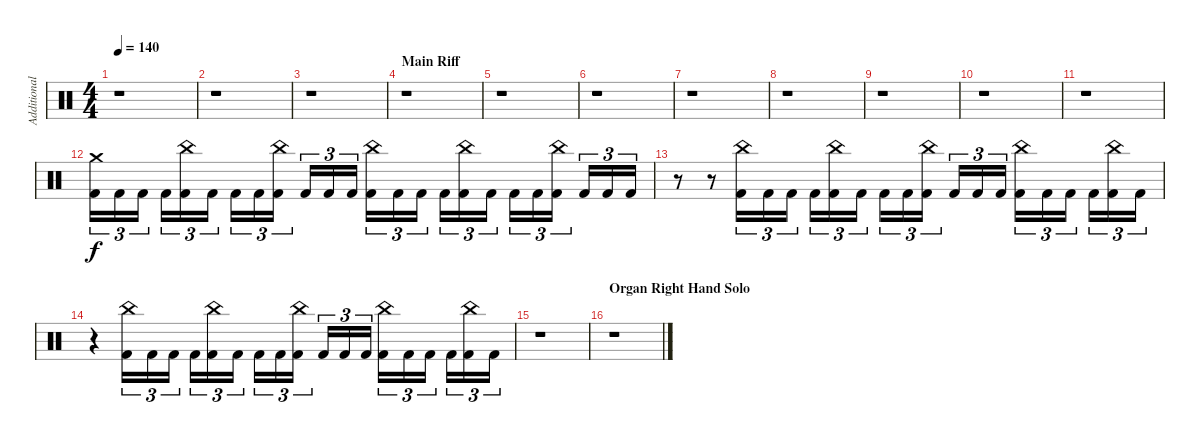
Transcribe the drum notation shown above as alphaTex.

\track ("Additional Drums" "Additional") {instrument percussion}
\staff {score}
\articulation defaults
\ts (4 4)
\tempo 140
\clef neutral
\ks c
r.1{dy f} |
r.1 |
r.1 |
\section ("" "Main Riff")
r.1 |
r.1 |
r.1 |
r.1 |
r.1 |
r.1 |
r.1 |
r.1 |
("Crash medium (hit)" "Kick (hit) 2").16{tu (3 2)} "Kick (hit) 2".16{tu (3 2)} "Kick (hit) 2".16{tu (3 2)} "Kick (hit) 2".16{tu (3 2)} ("China (hit)" "Kick (hit) 2").16{tu (3 2)} "Kick (hit) 2".16{tu (3 2)} "Kick (hit) 2".16{tu (3 2)} "Kick (hit) 2".16{tu (3 2)} ("China (hit)" "Kick (hit) 2").16{tu (3 2)} "Kick (hit) 2".16{tu (3 2)} "Kick (hit) 2".16{tu (3 2)} "Kick (hit) 2".16{tu (3 2)} ("China (hit)" "Kick (hit) 2").16{tu (3 2)} "Kick (hit) 2".16{tu (3 2)} "Kick (hit) 2".16{tu (3 2)} "Kick (hit) 2".16{tu (3 2)} ("China (hit)" "Kick (hit) 2").16{tu (3 2)} "Kick (hit) 2".16{tu (3 2)} "Kick (hit) 2".16{tu (3 2)} "Kick (hit) 2".16{tu (3 2)} ("China (hit)" "Kick (hit) 2").16{tu (3 2)} "Kick (hit) 2".16{tu (3 2)} "Kick (hit) 2".16{tu (3 2)} "Kick (hit) 2".16{tu (3 2)} |
r.8 r.8 ("China (hit)" "Kick (hit) 2").16{tu (3 2)} "Kick (hit) 2".16{tu (3 2)} "Kick (hit) 2".16{tu (3 2)} "Kick (hit) 2".16{tu (3 2)} ("China (hit)" "Kick (hit) 2").16{tu (3 2)} "Kick (hit) 2".16{tu (3 2)} "Kick (hit) 2".16{tu (3 2)} "Kick (hit) 2".16{tu (3 2)} ("China (hit)" "Kick (hit) 2").16{tu (3 2)} "Kick (hit) 2".16{tu (3 2)} "Kick (hit) 2".16{tu (3 2)} "Kick (hit) 2".16{tu (3 2)} ("China (hit)" "Kick (hit) 2").16{tu (3 2)} "Kick (hit) 2".16{tu (3 2)} "Kick (hit) 2".16{tu (3 2)} "Kick (hit) 2".16{tu (3 2)} ("China (hit)" "Kick (hit) 2").16{tu (3 2)} "Kick (hit) 2".16{tu (3 2)} |
r.4 ("China (hit)" "Kick (hit) 2").16{tu (3 2)} "Kick (hit) 2".16{tu (3 2)} "Kick (hit) 2".16{tu (3 2)} "Kick (hit) 2".16{tu (3 2)} ("China (hit)" "Kick (hit) 2").16{tu (3 2)} "Kick (hit) 2".16{tu (3 2)} "Kick (hit) 2".16{tu (3 2)} "Kick (hit) 2".16{tu (3 2)} ("China (hit)" "Kick (hit) 2").16{tu (3 2)} "Kick (hit) 2".16{tu (3 2)} "Kick (hit) 2".16{tu (3 2)} "Kick (hit) 2".16{tu (3 2)} ("China (hit)" "Kick (hit) 2").16{tu (3 2)} "Kick (hit) 2".16{tu (3 2)} "Kick (hit) 2".16{tu (3 2)} "Kick (hit) 2".16{tu (3 2)} ("China (hit)" "Kick (hit) 2").16{tu (3 2)} "Kick (hit) 2".16{tu (3 2)} |
r.1 |
\section ("" "Organ Right Hand Solo")
r.1
